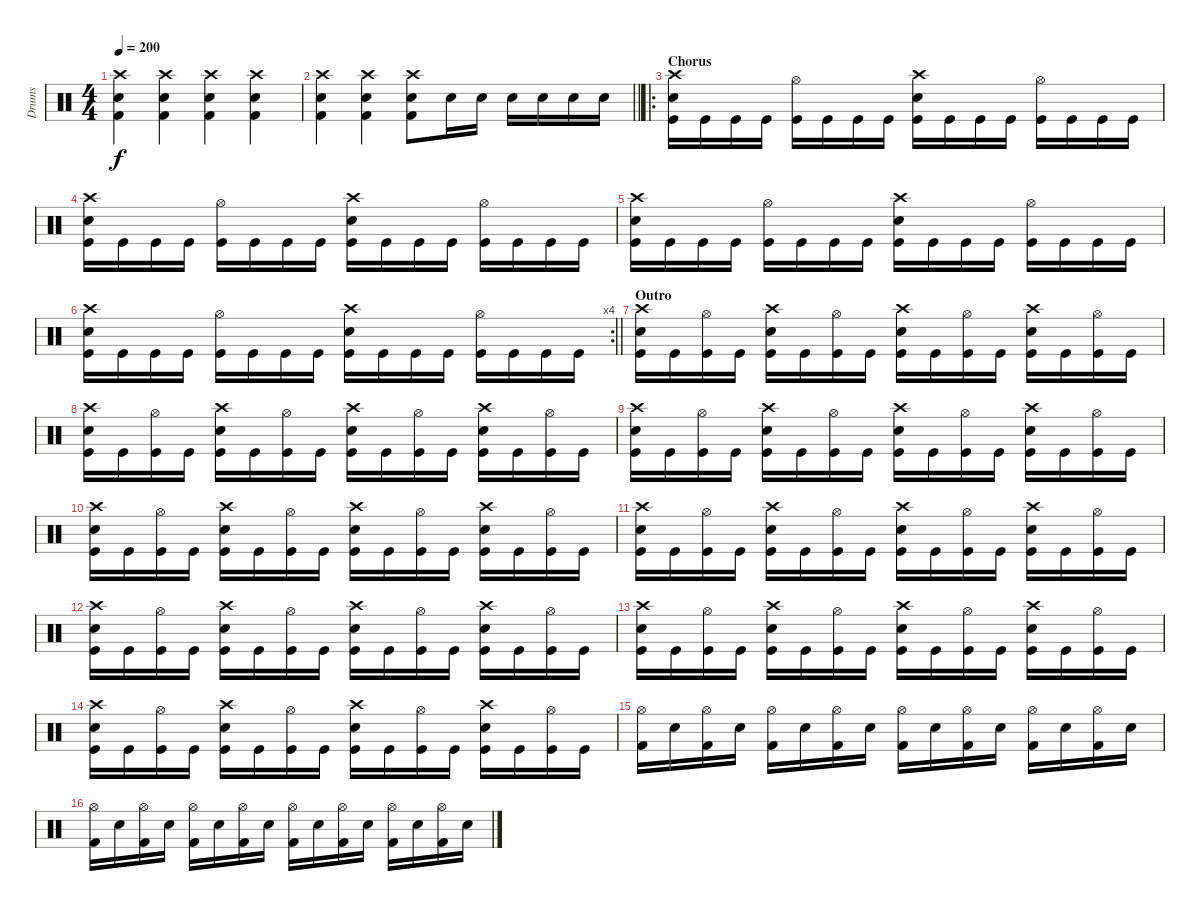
\track ("Drums" "Drums") {instrument percussion}
\staff {score}
\articulation defaults
\ts (4 4)
\tempo 200
\clef neutral
\ks c
("Crash high (hit)" "Electric Snare (hit)" "Kick (hit) 2").4{dy f} ("Crash high (hit)" "Electric Snare (hit)" "Kick (hit) 2").4 ("Crash high (hit)" "Electric Snare (hit)" "Kick (hit) 2").4 ("Crash high (hit)" "Electric Snare (hit)" "Kick (hit) 2").4 |
\barLineRight lightlight
("Crash high (hit)" "Electric Snare (hit)" "Kick (hit) 2").4 ("Crash high (hit)" "Electric Snare (hit)" "Kick (hit) 2").4 ("Crash high (hit)" "Electric Snare (hit)" "Kick (hit) 2").8 "Snare (hit) 2".16 "Snare (hit) 2".16 "Snare (hit) 2".16 "Snare (hit) 2".16 "Snare (hit) 2".16 "Snare (hit) 2".16 |
\ro
\section ("" "Chorus")
("Crash high (hit)" "Snare (hit) 2" "Kick (hit)").16 "Kick (hit)".16 "Kick (hit)".16 "Kick (hit)".16 ("Hi-Hat (open)" "Kick (hit)").16 "Kick (hit)".16 "Kick (hit)".16 "Kick (hit)".16 ("Crash high (hit)" "Snare (hit) 2" "Kick (hit)").16 "Kick (hit)".16 "Kick (hit)".16 "Kick (hit)".16 ("Hi-Hat (open)" "Kick (hit)").16 "Kick (hit)".16 "Kick (hit)".16 "Kick (hit)".16 |
("Crash high (hit)" "Snare (hit) 2" "Kick (hit)").16 "Kick (hit)".16 "Kick (hit)".16 "Kick (hit)".16 ("Hi-Hat (open)" "Kick (hit)").16 "Kick (hit)".16 "Kick (hit)".16 "Kick (hit)".16 ("Crash high (hit)" "Snare (hit) 2" "Kick (hit)").16 "Kick (hit)".16 "Kick (hit)".16 "Kick (hit)".16 ("Hi-Hat (open)" "Kick (hit)").16 "Kick (hit)".16 "Kick (hit)".16 "Kick (hit)".16 |
("Crash high (hit)" "Snare (hit) 2" "Kick (hit)").16 "Kick (hit)".16 "Kick (hit)".16 "Kick (hit)".16 ("Hi-Hat (open)" "Kick (hit)").16 "Kick (hit)".16 "Kick (hit)".16 "Kick (hit)".16 ("Crash high (hit)" "Snare (hit) 2" "Kick (hit)").16 "Kick (hit)".16 "Kick (hit)".16 "Kick (hit)".16 ("Hi-Hat (open)" "Kick (hit)").16 "Kick (hit)".16 "Kick (hit)".16 "Kick (hit)".16 |
\rc 4
\barLineRight lightlight
("Crash high (hit)" "Snare (hit) 2" "Kick (hit)").16 "Kick (hit)".16 "Kick (hit)".16 "Kick (hit)".16 ("Hi-Hat (open)" "Kick (hit)").16 "Kick (hit)".16 "Kick (hit)".16 "Kick (hit)".16 ("Crash high (hit)" "Snare (hit) 2" "Kick (hit)").16 "Kick (hit)".16 "Kick (hit)".16 "Kick (hit)".16 ("Hi-Hat (open)" "Kick (hit)").16 "Kick (hit)".16 "Kick (hit)".16 "Kick (hit)".16 |
\section ("" "Outro")
("Crash high (hit)" "Snare (hit) 2" "Kick (hit)").16 "Kick (hit)".16 ("Hi-Hat (open)" "Kick (hit)").16 "Kick (hit)".16 ("Crash high (hit)" "Snare (hit) 2" "Kick (hit)").16 "Kick (hit)".16 ("Hi-Hat (open)" "Kick (hit)").16 "Kick (hit)".16 ("Crash high (hit)" "Snare (hit) 2" "Kick (hit)").16 "Kick (hit)".16 ("Hi-Hat (open)" "Kick (hit)").16 "Kick (hit)".16 ("Crash high (hit)" "Snare (hit) 2" "Kick (hit)").16 "Kick (hit)".16 ("Hi-Hat (open)" "Kick (hit)").16 "Kick (hit)".16 |
("Crash high (hit)" "Snare (hit) 2" "Kick (hit)").16 "Kick (hit)".16 ("Hi-Hat (open)" "Kick (hit)").16 "Kick (hit)".16 ("Crash high (hit)" "Snare (hit) 2" "Kick (hit)").16 "Kick (hit)".16 ("Hi-Hat (open)" "Kick (hit)").16 "Kick (hit)".16 ("Crash high (hit)" "Snare (hit) 2" "Kick (hit)").16 "Kick (hit)".16 ("Hi-Hat (open)" "Kick (hit)").16 "Kick (hit)".16 ("Crash high (hit)" "Snare (hit) 2" "Kick (hit)").16 "Kick (hit)".16 ("Hi-Hat (open)" "Kick (hit)").16 "Kick (hit)".16 |
("Crash high (hit)" "Snare (hit) 2" "Kick (hit)").16 "Kick (hit)".16 ("Hi-Hat (open)" "Kick (hit)").16 "Kick (hit)".16 ("Crash high (hit)" "Snare (hit) 2" "Kick (hit)").16 "Kick (hit)".16 ("Hi-Hat (open)" "Kick (hit)").16 "Kick (hit)".16 ("Crash high (hit)" "Snare (hit) 2" "Kick (hit)").16 "Kick (hit)".16 ("Hi-Hat (open)" "Kick (hit)").16 "Kick (hit)".16 ("Crash high (hit)" "Snare (hit) 2" "Kick (hit)").16 "Kick (hit)".16 ("Hi-Hat (open)" "Kick (hit)").16 "Kick (hit)".16 |
("Crash high (hit)" "Snare (hit) 2" "Kick (hit)").16 "Kick (hit)".16 ("Hi-Hat (open)" "Kick (hit)").16 "Kick (hit)".16 ("Crash high (hit)" "Snare (hit) 2" "Kick (hit)").16 "Kick (hit)".16 ("Hi-Hat (open)" "Kick (hit)").16 "Kick (hit)".16 ("Crash high (hit)" "Snare (hit) 2" "Kick (hit)").16 "Kick (hit)".16 ("Hi-Hat (open)" "Kick (hit)").16 "Kick (hit)".16 ("Crash high (hit)" "Snare (hit) 2" "Kick (hit)").16 "Kick (hit)".16 ("Hi-Hat (open)" "Kick (hit)").16 "Kick (hit)".16 |
("Crash high (hit)" "Snare (hit) 2" "Kick (hit)").16 "Kick (hit)".16 ("Hi-Hat (open)" "Kick (hit)").16 "Kick (hit)".16 ("Crash high (hit)" "Snare (hit) 2" "Kick (hit)").16 "Kick (hit)".16 ("Hi-Hat (open)" "Kick (hit)").16 "Kick (hit)".16 ("Crash high (hit)" "Snare (hit) 2" "Kick (hit)").16 "Kick (hit)".16 ("Hi-Hat (open)" "Kick (hit)").16 "Kick (hit)".16 ("Crash high (hit)" "Snare (hit) 2" "Kick (hit)").16 "Kick (hit)".16 ("Hi-Hat (open)" "Kick (hit)").16 "Kick (hit)".16 |
("Crash high (hit)" "Snare (hit) 2" "Kick (hit)").16 "Kick (hit)".16 ("Hi-Hat (open)" "Kick (hit)").16 "Kick (hit)".16 ("Crash high (hit)" "Snare (hit) 2" "Kick (hit)").16 "Kick (hit)".16 ("Hi-Hat (open)" "Kick (hit)").16 "Kick (hit)".16 ("Crash high (hit)" "Snare (hit) 2" "Kick (hit)").16 "Kick (hit)".16 ("Hi-Hat (open)" "Kick (hit)").16 "Kick (hit)".16 ("Crash high (hit)" "Snare (hit) 2" "Kick (hit)").16 "Kick (hit)".16 ("Hi-Hat (open)" "Kick (hit)").16 "Kick (hit)".16 |
("Crash high (hit)" "Snare (hit) 2" "Kick (hit)").16 "Kick (hit)".16 ("Hi-Hat (open)" "Kick (hit)").16 "Kick (hit)".16 ("Crash high (hit)" "Snare (hit) 2" "Kick (hit)").16 "Kick (hit)".16 ("Hi-Hat (open)" "Kick (hit)").16 "Kick (hit)".16 ("Crash high (hit)" "Snare (hit) 2" "Kick (hit)").16 "Kick (hit)".16 ("Hi-Hat (open)" "Kick (hit)").16 "Kick (hit)".16 ("Crash high (hit)" "Snare (hit) 2" "Kick (hit)").16 "Kick (hit)".16 ("Hi-Hat (open)" "Kick (hit)").16 "Kick (hit)".16 |
("Crash high (hit)" "Snare (hit) 2" "Kick (hit)").16 "Kick (hit)".16 ("Hi-Hat (open)" "Kick (hit)").16 "Kick (hit)".16 ("Crash high (hit)" "Snare (hit) 2" "Kick (hit)").16 "Kick (hit)".16 ("Hi-Hat (open)" "Kick (hit)").16 "Kick (hit)".16 ("Crash high (hit)" "Snare (hit) 2" "Kick (hit)").16 "Kick (hit)".16 ("Hi-Hat (open)" "Kick (hit)").16 "Kick (hit)".16 ("Crash high (hit)" "Snare (hit) 2" "Kick (hit)").16 "Kick (hit)".16 ("Hi-Hat (open)" "Kick (hit)").16 "Kick (hit)".16 |
("Hi-Hat (open)" "Kick (hit) 2").16 "Electric Snare (hit)".16 ("Hi-Hat (open)" "Kick (hit) 2").16 "Electric Snare (hit)".16 ("Hi-Hat (open)" "Kick (hit) 2").16 "Electric Snare (hit)".16 ("Hi-Hat (open)" "Kick (hit) 2").16 "Electric Snare (hit)".16 ("Hi-Hat (open)" "Kick (hit) 2").16 "Electric Snare (hit)".16 ("Hi-Hat (open)" "Kick (hit) 2").16 "Electric Snare (hit)".16 ("Hi-Hat (open)" "Kick (hit) 2").16 "Electric Snare (hit)".16 ("Hi-Hat (open)" "Kick (hit) 2").16 "Electric Snare (hit)".16 |
("Hi-Hat (open)" "Kick (hit) 2").16 "Electric Snare (hit)".16 ("Hi-Hat (open)" "Kick (hit) 2").16 "Electric Snare (hit)".16 ("Hi-Hat (open)" "Kick (hit) 2").16 "Electric Snare (hit)".16 ("Hi-Hat (open)" "Kick (hit) 2").16 "Electric Snare (hit)".16 ("Hi-Hat (open)" "Kick (hit) 2").16 "Electric Snare (hit)".16 ("Hi-Hat (open)" "Kick (hit) 2").16 "Electric Snare (hit)".16 ("Hi-Hat (open)" "Kick (hit) 2").16 "Electric Snare (hit)".16 ("Hi-Hat (open)" "Kick (hit) 2").16 "Electric Snare (hit)".16
